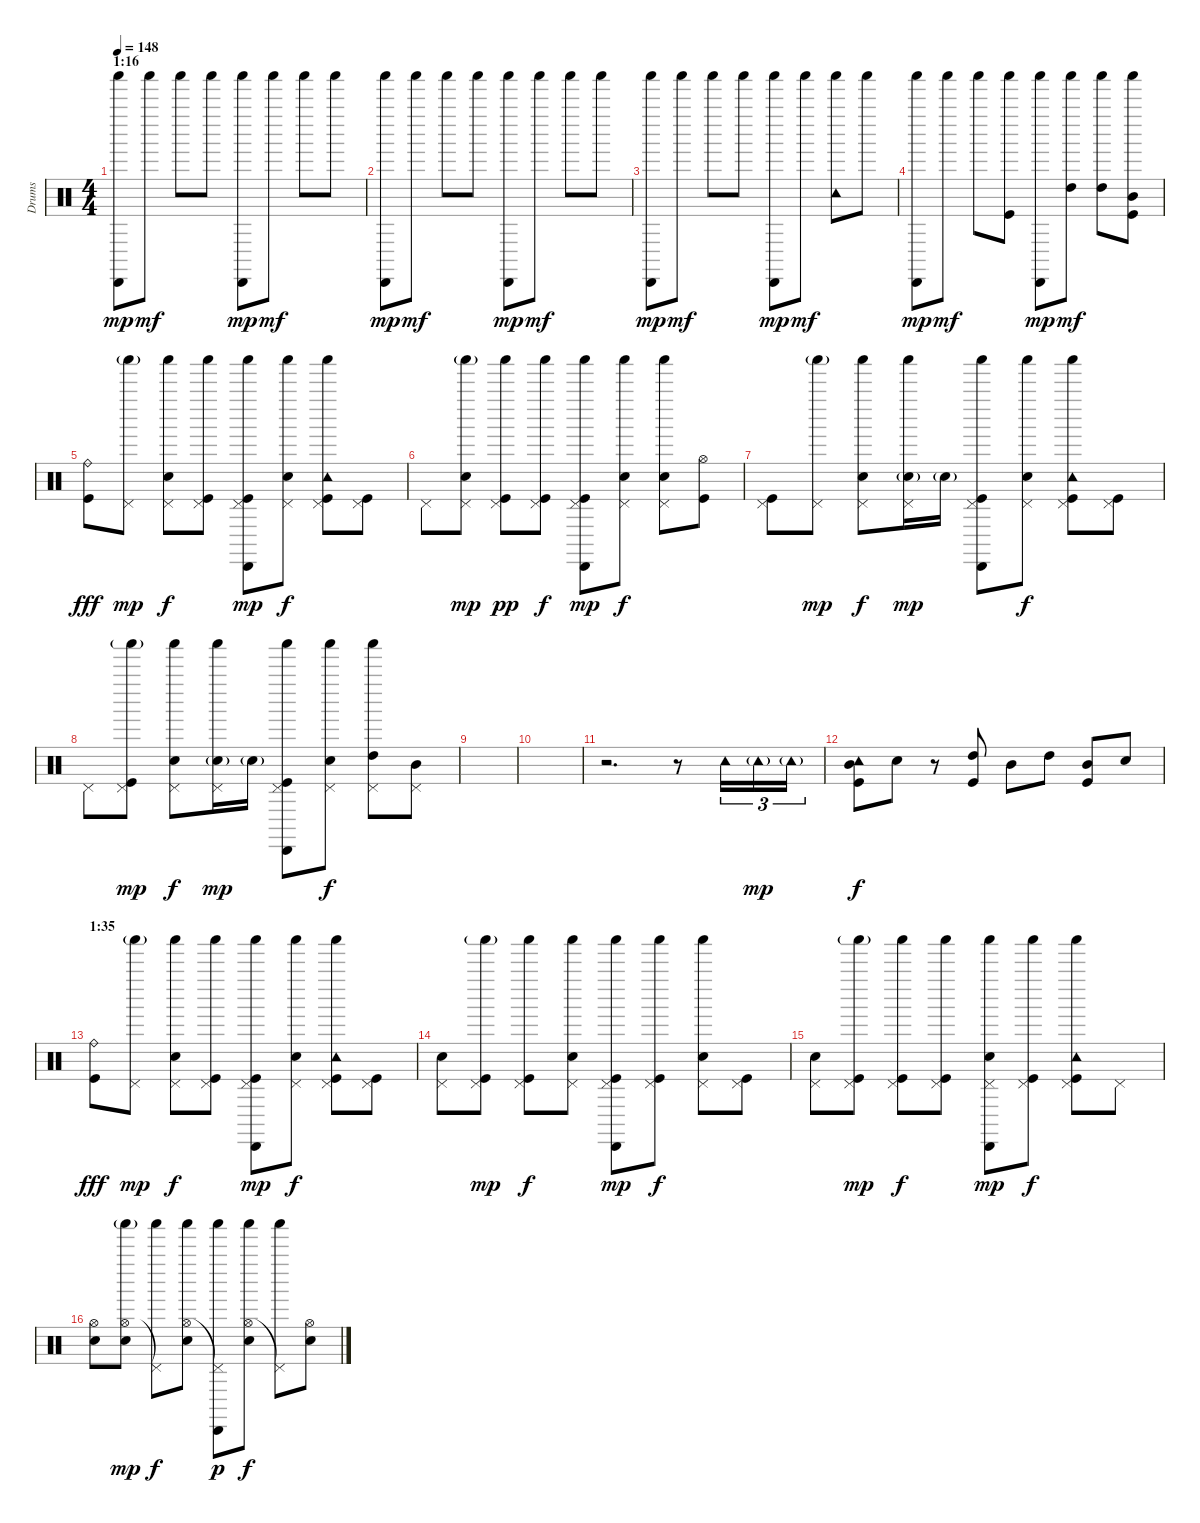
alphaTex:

\track ("Drums" "Drums") {instrument percussion}
\staff {score}
\articulation defaults
\ts (4 4)
\section ("" "1:16")
\tempo 148
\clef neutral
\ks c
("Cabasa (hit)" "Shaker (hit)").8{dy mp} "Shaker (hit)".8{dy mf} "Shaker (hit)".8 "Shaker (hit)".8 ("Cabasa (hit)" "Shaker (hit)").8{dy mp} "Shaker (hit)".8{dy mf} "Shaker (hit)".8 "Shaker (hit)".8 |
("Cabasa (hit)" "Shaker (hit)").8{dy mp} "Shaker (hit)".8{dy mf} "Shaker (hit)".8 "Shaker (hit)".8 ("Cabasa (hit)" "Shaker (hit)").8{dy mp} "Shaker (hit)".8{dy mf} "Shaker (hit)".8 "Shaker (hit)".8 |
("Cabasa (hit)" "Shaker (hit)").8{dy mp} "Shaker (hit)".8{dy mf} "Shaker (hit)".8 "Shaker (hit)".8 ("Cabasa (hit)" "Shaker (hit)").8{dy mp} "Shaker (hit)".8{dy mf} ("Tambourine (hit)" "Shaker (hit)").8 "Shaker (hit)".8 |
("Cabasa (hit)" "Shaker (hit)").8{dy mp} "Shaker (hit)".8{dy mf} "Shaker (hit)".8 ("Kick (hit)" "Shaker (hit)").8 ("Cabasa (hit)" "Shaker (hit)").8{dy mp} ("High Tom (hit)" "Shaker (hit)").8{dy mf} ("High Tom (hit)" "Shaker (hit)").8 ("Mid Tom (hit)" "Kick (hit)" "Shaker (hit)").8 |
("Ride (bell)" "Kick (hit)").8{dy fff} ("Pedal Hi-Hat (hit)" "Shaker (hit)"{g}).8{dy mp} ("Pedal Hi-Hat (hit)" "Electric Snare (hit)" "Shaker (hit)").8{dy f} ("Pedal Hi-Hat (hit)" "Kick (hit)" "Shaker (hit)").8 ("Pedal Hi-Hat (hit)" "Kick (hit)" "Cabasa (hit)" "Shaker (hit)").8{dy mp} ("Pedal Hi-Hat (hit)" "Electric Snare (hit)" "Shaker (hit)").8{dy f} ("Pedal Hi-Hat (hit)" "Tambourine (hit)" "Kick (hit)" "Shaker (hit)").8 ("Pedal Hi-Hat (hit)" "Kick (hit)").8 |
"Pedal Hi-Hat (hit)".8 ("Pedal Hi-Hat (hit)" "Electric Snare (hit)" "Shaker (hit)"{g}).8{dy mp} ("Pedal Hi-Hat (hit)" "Kick (hit)" "Shaker (hit)").8{dy pp} ("Pedal Hi-Hat (hit)" "Kick (hit)" "Shaker (hit)").8{dy f} ("Pedal Hi-Hat (hit)" "Kick (hit)" "Cabasa (hit)" "Shaker (hit)").8{dy mp} ("Pedal Hi-Hat (hit)" "Electric Snare (hit)" "Shaker (hit)").8{dy f} ("Pedal Hi-Hat (hit)" "Electric Snare (hit)" "Shaker (hit)").8 ("Hi-Hat (open)" "Kick (hit)").8 |
("Pedal Hi-Hat (hit)" "Kick (hit)").8 ("Pedal Hi-Hat (hit)" "Shaker (hit)"{g}).8{dy mp} ("Pedal Hi-Hat (hit)" "Electric Snare (hit)" "Shaker (hit)").8{dy f} ("Pedal Hi-Hat (hit)" "Electric Snare (hit)"{g} "Shaker (hit)").16{dy mp} "Electric Snare (hit)"{g}.16 ("Pedal Hi-Hat (hit)" "Kick (hit)" "Cabasa (hit)" "Shaker (hit)").8 ("Pedal Hi-Hat (hit)" "Electric Snare (hit)" "Shaker (hit)").8{dy f} ("Pedal Hi-Hat (hit)" "Tambourine (hit)" "Kick (hit)" "Shaker (hit)").8 ("Pedal Hi-Hat (hit)" "Kick (hit)").8 |
"Pedal Hi-Hat (hit)".8 ("Pedal Hi-Hat (hit)" "Kick (hit)" "Shaker (hit)"{g}).8{dy mp} ("Pedal Hi-Hat (hit)" "Electric Snare (hit)" "Shaker (hit)").8{dy f} ("Pedal Hi-Hat (hit)" "Electric Snare (hit)"{g} "Shaker (hit)").16{dy mp} "Electric Snare (hit)"{g}.16 ("Pedal Hi-Hat (hit)" "Kick (hit)" "Cabasa (hit)" "Shaker (hit)").8 ("Pedal Hi-Hat (hit)" "Electric Snare (hit)" "Shaker (hit)").8{dy f} ("Pedal Hi-Hat (hit)" "High Tom (hit)" "Shaker (hit)").8 ("Pedal Hi-Hat (hit)" "Mid Tom (hit)").8 |
|
|
r.2{d} r.8 "Tambourine (hit)".16{tu (3 2)} "Tambourine (hit)"{g}.16{tu (3 2) dy mp} "Tambourine (hit)"{g}.16{tu (3 2)} |
("Tambourine (hit)" "Mid Tom (hit)" "Kick (hit)").8{dy f} "Electric Snare (hit)".8 r.8 ("High Tom (hit)" "Kick (hit)").8 "Mid Tom (hit)".8 "High Tom (hit)".8 ("Mid Tom (hit)" "Kick (hit)").8 "Electric Snare (hit)".8 |
\section ("" "1:35")
("Ride (bell)" "Kick (hit)").8{dy fff} ("Pedal Hi-Hat (hit)" "Shaker (hit)"{g}).8{dy mp} ("Pedal Hi-Hat (hit)" "Electric Snare (hit)" "Shaker (hit)").8{dy f} ("Pedal Hi-Hat (hit)" "Kick (hit)" "Shaker (hit)").8 ("Pedal Hi-Hat (hit)" "Kick (hit)" "Cabasa (hit)" "Shaker (hit)").8{dy mp} ("Pedal Hi-Hat (hit)" "Electric Snare (hit)" "Shaker (hit)").8{dy f} ("Pedal Hi-Hat (hit)" "Tambourine (hit)" "Kick (hit)" "Shaker (hit)").8 ("Pedal Hi-Hat (hit)" "Kick (hit)").8 |
("Pedal Hi-Hat (hit)" "Electric Snare (hit)").8 ("Pedal Hi-Hat (hit)" "Kick (hit)" "Shaker (hit)"{g}).8{dy mp} ("Pedal Hi-Hat (hit)" "Kick (hit)" "Shaker (hit)").8{dy f} ("Pedal Hi-Hat (hit)" "Electric Snare (hit)" "Shaker (hit)").8 ("Pedal Hi-Hat (hit)" "Kick (hit)" "Cabasa (hit)" "Shaker (hit)").8{dy mp} ("Pedal Hi-Hat (hit)" "Kick (hit)" "Shaker (hit)").8{dy f} ("Pedal Hi-Hat (hit)" "Electric Snare (hit)" "Shaker (hit)").8 ("Pedal Hi-Hat (hit)" "Kick (hit)").8 |
("Pedal Hi-Hat (hit)" "Electric Snare (hit)").8 ("Pedal Hi-Hat (hit)" "Kick (hit)" "Shaker (hit)"{g}).8{dy mp} ("Pedal Hi-Hat (hit)" "Kick (hit)" "Shaker (hit)").8{dy f} ("Pedal Hi-Hat (hit)" "Kick (hit)" "Shaker (hit)").8 ("Pedal Hi-Hat (hit)" "Electric Snare (hit)" "Cabasa (hit)" "Shaker (hit)").8{dy mp} ("Pedal Hi-Hat (hit)" "Kick (hit)" "Shaker (hit)").8{dy f} ("Pedal Hi-Hat (hit)" "Tambourine (hit)" "Kick (hit)" "Shaker (hit)").8 "Pedal Hi-Hat (hit)".8 |
("Hi-Hat (open)" "Electric Snare (hit)").8 ("Hi-Hat (open)" "Electric Snare (hit)" "Shaker (hit)"{g}).8{dy mp} ("Pedal Hi-Hat (hit)"{t} "Shaker (hit)").8{dy f} ("Hi-Hat (open)" "Electric Snare (hit)" "Shaker (hit)").8 ("Pedal Hi-Hat (hit)"{t} "Cabasa (hit)" "Shaker (hit)").8{dy p} ("Hi-Hat (open)" "Electric Snare (hit)" "Shaker (hit)").8{dy f} ("Pedal Hi-Hat (hit)"{t} "Shaker (hit)").8 ("Hi-Hat (open)" "Electric Snare (hit)").8
